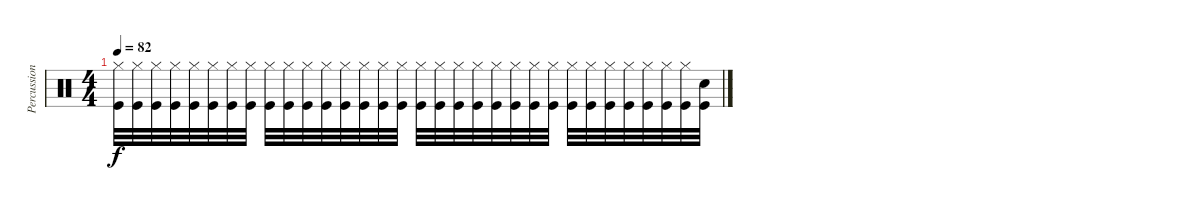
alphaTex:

\track ("Percussion" "Percussion") {instrument percussion}
\staff {score}
\articulation defaults
\ts (4 4)
\tempo 82
\clef neutral
\ks c
("Hi-Hat (closed)" "Kick (hit)").32{dy f} ("Hi-Hat (closed)" "Kick (hit)").32 ("Hi-Hat (closed)" "Kick (hit)").32 ("Hi-Hat (closed)" "Kick (hit)").32 ("Hi-Hat (closed)" "Kick (hit)").32 ("Hi-Hat (closed)" "Kick (hit)").32 ("Hi-Hat (closed)" "Kick (hit)").32 ("Hi-Hat (closed)" "Kick (hit)").32 ("Hi-Hat (closed)" "Kick (hit)").32 ("Hi-Hat (closed)" "Kick (hit)").32 ("Hi-Hat (closed)" "Kick (hit)").32 ("Hi-Hat (closed)" "Kick (hit)").32 ("Hi-Hat (closed)" "Kick (hit)").32 ("Hi-Hat (closed)" "Kick (hit)").32 ("Hi-Hat (closed)" "Kick (hit)").32 ("Hi-Hat (closed)" "Kick (hit)").32 ("Hi-Hat (closed)" "Kick (hit)").32 ("Hi-Hat (closed)" "Kick (hit)").32 ("Hi-Hat (closed)" "Kick (hit)").32 ("Hi-Hat (closed)" "Kick (hit)").32 ("Hi-Hat (closed)" "Kick (hit)").32 ("Hi-Hat (closed)" "Kick (hit)").32 ("Hi-Hat (closed)" "Kick (hit)").32 ("Hi-Hat (closed)" "Kick (hit)").32 ("Hi-Hat (closed)" "Kick (hit)").32 ("Hi-Hat (closed)" "Kick (hit)").32 ("Hi-Hat (closed)" "Kick (hit)").32 ("Hi-Hat (closed)" "Kick (hit)").32 ("Hi-Hat (closed)" "Kick (hit)").32 ("Hi-Hat (closed)" "Kick (hit)").32 ("Hi-Hat (closed)" "Kick (hit)").32 ("Snare (hit)" "Kick (hit)").32
